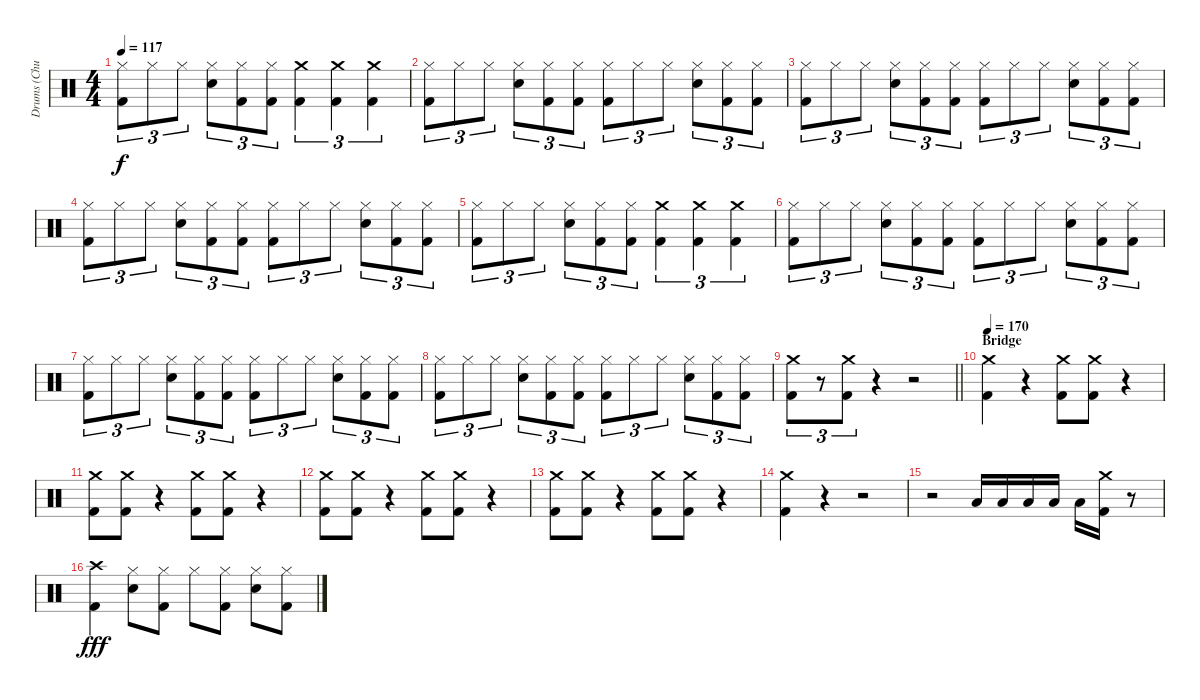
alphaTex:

\track ("Drums (Chuck Behler)" "Drums (Chu") {instrument percussion}
\staff {score}
\articulation defaults
\ts (4 4)
\tempo 117
\clef neutral
\ks c
("Hi-Hat (closed)" "Kick (hit) 2").8{tu (3 2) dy f} "Hi-Hat (closed)".8{tu (3 2)} "Hi-Hat (closed)".8{tu (3 2)} ("Hi-Hat (closed)" "Snare (hit) 2").8{tu (3 2)} ("Hi-Hat (closed)" "Kick (hit) 2").8{tu (3 2)} ("Hi-Hat (closed)" "Kick (hit) 2").8{tu (3 2)} ("Crash medium (hit)" "Kick (hit) 2").4{tu (3 2)} ("Crash medium (hit)" "Kick (hit) 2").4{tu (3 2)} ("Crash medium (hit)" "Kick (hit) 2").4{tu (3 2)} |
("Hi-Hat (closed)" "Kick (hit) 2").8{tu (3 2)} "Hi-Hat (closed)".8{tu (3 2)} "Hi-Hat (closed)".8{tu (3 2)} ("Hi-Hat (closed)" "Snare (hit) 2").8{tu (3 2)} ("Hi-Hat (closed)" "Kick (hit) 2").8{tu (3 2)} ("Hi-Hat (closed)" "Kick (hit) 2").8{tu (3 2)} ("Hi-Hat (closed)" "Kick (hit) 2").8{tu (3 2)} "Hi-Hat (closed)".8{tu (3 2)} "Hi-Hat (closed)".8{tu (3 2)} ("Hi-Hat (closed)" "Snare (hit) 2").8{tu (3 2)} ("Hi-Hat (closed)" "Kick (hit) 2").8{tu (3 2)} ("Hi-Hat (closed)" "Kick (hit) 2").8{tu (3 2)} |
("Hi-Hat (closed)" "Kick (hit) 2").8{tu (3 2)} "Hi-Hat (closed)".8{tu (3 2)} "Hi-Hat (closed)".8{tu (3 2)} ("Hi-Hat (closed)" "Snare (hit) 2").8{tu (3 2)} ("Hi-Hat (closed)" "Kick (hit) 2").8{tu (3 2)} ("Hi-Hat (closed)" "Kick (hit) 2").8{tu (3 2)} ("Hi-Hat (closed)" "Kick (hit) 2").8{tu (3 2)} "Hi-Hat (closed)".8{tu (3 2)} "Hi-Hat (closed)".8{tu (3 2)} ("Hi-Hat (closed)" "Snare (hit) 2").8{tu (3 2)} ("Hi-Hat (closed)" "Kick (hit) 2").8{tu (3 2)} ("Hi-Hat (closed)" "Kick (hit) 2").8{tu (3 2)} |
("Hi-Hat (closed)" "Kick (hit) 2").8{tu (3 2)} "Hi-Hat (closed)".8{tu (3 2)} "Hi-Hat (closed)".8{tu (3 2)} ("Hi-Hat (closed)" "Snare (hit) 2").8{tu (3 2)} ("Hi-Hat (closed)" "Kick (hit) 2").8{tu (3 2)} ("Hi-Hat (closed)" "Kick (hit) 2").8{tu (3 2)} ("Hi-Hat (closed)" "Kick (hit) 2").8{tu (3 2)} "Hi-Hat (closed)".8{tu (3 2)} "Hi-Hat (closed)".8{tu (3 2)} ("Hi-Hat (closed)" "Snare (hit) 2").8{tu (3 2)} ("Hi-Hat (closed)" "Kick (hit) 2").8{tu (3 2)} ("Hi-Hat (closed)" "Kick (hit) 2").8{tu (3 2)} |
("Hi-Hat (closed)" "Kick (hit) 2").8{tu (3 2)} "Hi-Hat (closed)".8{tu (3 2)} "Hi-Hat (closed)".8{tu (3 2)} ("Hi-Hat (closed)" "Snare (hit) 2").8{tu (3 2)} ("Hi-Hat (closed)" "Kick (hit) 2").8{tu (3 2)} ("Hi-Hat (closed)" "Kick (hit) 2").8{tu (3 2)} ("Crash medium (hit)" "Kick (hit) 2").4{tu (3 2)} ("Crash medium (hit)" "Kick (hit) 2").4{tu (3 2)} ("Crash medium (hit)" "Kick (hit) 2").4{tu (3 2)} |
("Hi-Hat (closed)" "Kick (hit) 2").8{tu (3 2)} "Hi-Hat (closed)".8{tu (3 2)} "Hi-Hat (closed)".8{tu (3 2)} ("Hi-Hat (closed)" "Snare (hit) 2").8{tu (3 2)} ("Hi-Hat (closed)" "Kick (hit) 2").8{tu (3 2)} ("Hi-Hat (closed)" "Kick (hit) 2").8{tu (3 2)} ("Hi-Hat (closed)" "Kick (hit) 2").8{tu (3 2)} "Hi-Hat (closed)".8{tu (3 2)} "Hi-Hat (closed)".8{tu (3 2)} ("Hi-Hat (closed)" "Snare (hit) 2").8{tu (3 2)} ("Hi-Hat (closed)" "Kick (hit) 2").8{tu (3 2)} ("Hi-Hat (closed)" "Kick (hit) 2").8{tu (3 2)} |
("Hi-Hat (closed)" "Kick (hit) 2").8{tu (3 2)} "Hi-Hat (closed)".8{tu (3 2)} "Hi-Hat (closed)".8{tu (3 2)} ("Hi-Hat (closed)" "Snare (hit) 2").8{tu (3 2)} ("Hi-Hat (closed)" "Kick (hit) 2").8{tu (3 2)} ("Hi-Hat (closed)" "Kick (hit) 2").8{tu (3 2)} ("Hi-Hat (closed)" "Kick (hit) 2").8{tu (3 2)} "Hi-Hat (closed)".8{tu (3 2)} "Hi-Hat (closed)".8{tu (3 2)} ("Hi-Hat (closed)" "Snare (hit) 2").8{tu (3 2)} ("Hi-Hat (closed)" "Kick (hit) 2").8{tu (3 2)} ("Hi-Hat (closed)" "Kick (hit) 2").8{tu (3 2)} |
("Hi-Hat (closed)" "Kick (hit) 2").8{tu (3 2)} "Hi-Hat (closed)".8{tu (3 2)} "Hi-Hat (closed)".8{tu (3 2)} ("Hi-Hat (closed)" "Snare (hit) 2").8{tu (3 2)} ("Hi-Hat (closed)" "Kick (hit) 2").8{tu (3 2)} ("Hi-Hat (closed)" "Kick (hit) 2").8{tu (3 2)} ("Hi-Hat (closed)" "Kick (hit) 2").8{tu (3 2)} "Hi-Hat (closed)".8{tu (3 2)} "Hi-Hat (closed)".8{tu (3 2)} ("Hi-Hat (closed)" "Snare (hit) 2").8{tu (3 2)} ("Hi-Hat (closed)" "Kick (hit) 2").8{tu (3 2)} ("Hi-Hat (closed)" "Kick (hit) 2").8{tu (3 2)} |
\barLineRight lightlight
("Crash medium (hit)" "Kick (hit) 2").8{tu (3 2)} r.8{tu (3 2)} ("Crash medium (hit)" "Kick (hit) 2").8{tu (3 2)} r.4 r.2 |
\section ("" "Bridge")
\tempo 170
("Crash medium (hit)" "Kick (hit) 2").4 r.4 ("Crash medium (hit)" "Kick (hit) 2").8 ("Crash medium (hit)" "Kick (hit) 2").8 r.4 |
("Crash medium (hit)" "Kick (hit) 2").8 ("Crash medium (hit)" "Kick (hit) 2").8 r.4 ("Crash medium (hit)" "Kick (hit) 2").8 ("Crash medium (hit)" "Kick (hit) 2").8 r.4 |
("Crash medium (hit)" "Kick (hit) 2").8 ("Crash medium (hit)" "Kick (hit) 2").8 r.4 ("Crash medium (hit)" "Kick (hit) 2").8 ("Crash medium (hit)" "Kick (hit) 2").8 r.4 |
("Crash medium (hit)" "Kick (hit) 2").8 ("Crash medium (hit)" "Kick (hit) 2").8 r.4 ("Crash medium (hit)" "Kick (hit) 2").8 ("Crash medium (hit)" "Kick (hit) 2").8 r.4 |
("Crash medium (hit)" "Kick (hit) 2").4 r.4 r.2 |
r.2 "Low Tom (hit)".16 "Low Tom (hit)".16 "Low Tom (hit)".16 "Low Tom (hit)".16 "Low Tom (hit)".16 ("Crash medium (hit)" "Kick (hit) 2").16 r.8 |
("Crash high (hit)" "Kick (hit) 2").4{dy fff} ("Hi-Hat (closed)" "Snare (hit) 2").8 ("Hi-Hat (closed)" "Kick (hit) 2").8 "Hi-Hat (closed)".8 ("Hi-Hat (closed)" "Kick (hit) 2").8 ("Hi-Hat (closed)" "Snare (hit) 2").8 ("Hi-Hat (closed)" "Kick (hit) 2").8
